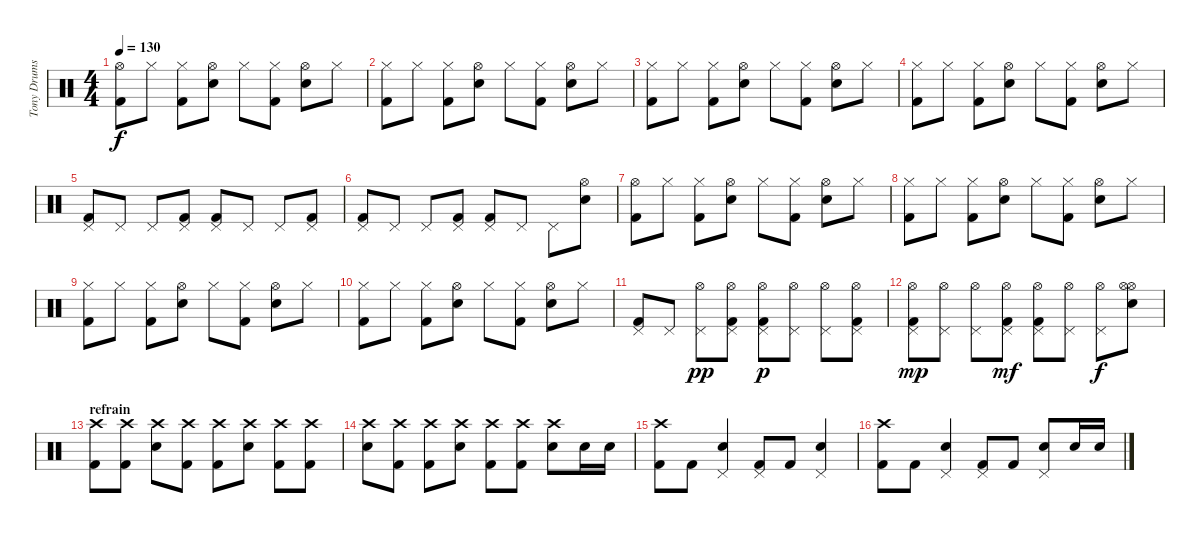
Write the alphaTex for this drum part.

\track ("Tony Drums" "Tony Drums") {instrument percussion}
\staff {score}
\articulation defaults
\ts (4 4)
\tempo 130
\clef neutral
\ks c
("Hi-Hat (open)" "Kick (hit) 2").8{dy f} "Hi-Hat (closed)".8 ("Hi-Hat (closed)" "Kick (hit) 2").8 ("Hi-Hat (open)" "Snare (hit) 2").8 "Hi-Hat (closed)".8 ("Hi-Hat (closed)" "Kick (hit) 2").8 ("Hi-Hat (open)" "Snare (hit) 2").8 "Hi-Hat (closed)".8 |
("Hi-Hat (closed)" "Kick (hit) 2").8 "Hi-Hat (closed)".8 ("Hi-Hat (closed)" "Kick (hit) 2").8 ("Hi-Hat (open)" "Snare (hit) 2").8 "Hi-Hat (closed)".8 ("Hi-Hat (closed)" "Kick (hit) 2").8 ("Hi-Hat (open)" "Snare (hit) 2").8 "Hi-Hat (closed)".8 |
("Hi-Hat (closed)" "Kick (hit) 2").8 "Hi-Hat (closed)".8 ("Hi-Hat (closed)" "Kick (hit) 2").8 ("Hi-Hat (open)" "Snare (hit) 2").8 "Hi-Hat (closed)".8 ("Hi-Hat (closed)" "Kick (hit) 2").8 ("Hi-Hat (open)" "Snare (hit) 2").8 "Hi-Hat (closed)".8 |
("Hi-Hat (closed)" "Kick (hit) 2").8 "Hi-Hat (closed)".8 ("Hi-Hat (closed)" "Kick (hit) 2").8 ("Hi-Hat (open)" "Snare (hit) 2").8 "Hi-Hat (closed)".8 ("Hi-Hat (closed)" "Kick (hit) 2").8 ("Hi-Hat (open)" "Snare (hit) 2").8 "Hi-Hat (closed)".8 |
("Pedal Hi-Hat (hit)" "Kick (hit) 2").8 "Pedal Hi-Hat (hit)".8 "Pedal Hi-Hat (hit)".8 ("Pedal Hi-Hat (hit)" "Kick (hit) 2").8 ("Pedal Hi-Hat (hit)" "Kick (hit) 2").8 "Pedal Hi-Hat (hit)".8 "Pedal Hi-Hat (hit)".8 ("Pedal Hi-Hat (hit)" "Kick (hit) 2").8 |
("Pedal Hi-Hat (hit)" "Kick (hit) 2").8 "Pedal Hi-Hat (hit)".8 "Pedal Hi-Hat (hit)".8 ("Pedal Hi-Hat (hit)" "Kick (hit) 2").8 ("Pedal Hi-Hat (hit)" "Kick (hit) 2").8 "Pedal Hi-Hat (hit)".8 "Pedal Hi-Hat (hit)".8 ("Hi-Hat (open)" "Snare (hit) 2").8 |
("Hi-Hat (open)" "Kick (hit) 2").8 "Hi-Hat (closed)".8 ("Hi-Hat (closed)" "Kick (hit) 2").8 ("Hi-Hat (open)" "Snare (hit) 2").8 "Hi-Hat (closed)".8 ("Hi-Hat (closed)" "Kick (hit) 2").8 ("Hi-Hat (open)" "Snare (hit) 2").8 "Hi-Hat (closed)".8 |
("Hi-Hat (closed)" "Kick (hit) 2").8 "Hi-Hat (closed)".8 ("Hi-Hat (closed)" "Kick (hit) 2").8 ("Hi-Hat (open)" "Snare (hit) 2").8 "Hi-Hat (closed)".8 ("Hi-Hat (closed)" "Kick (hit) 2").8 ("Hi-Hat (open)" "Snare (hit) 2").8 "Hi-Hat (closed)".8 |
("Hi-Hat (closed)" "Kick (hit) 2").8 "Hi-Hat (closed)".8 ("Hi-Hat (closed)" "Kick (hit) 2").8 ("Hi-Hat (open)" "Snare (hit) 2").8 "Hi-Hat (closed)".8 ("Hi-Hat (closed)" "Kick (hit) 2").8 ("Hi-Hat (open)" "Snare (hit) 2").8 "Hi-Hat (closed)".8 |
("Hi-Hat (closed)" "Kick (hit) 2").8 "Hi-Hat (closed)".8 ("Hi-Hat (closed)" "Kick (hit) 2").8 ("Hi-Hat (open)" "Snare (hit) 2").8 "Hi-Hat (closed)".8 ("Hi-Hat (closed)" "Kick (hit) 2").8 ("Hi-Hat (open)" "Snare (hit) 2").8 "Hi-Hat (closed)".8 |
("Pedal Hi-Hat (hit)" "Kick (hit) 2").8 "Pedal Hi-Hat (hit)".8 ("Hi-Hat (open)" "Pedal Hi-Hat (hit)").8{dy pp} ("Hi-Hat (open)" "Pedal Hi-Hat (hit)" "Kick (hit) 2").8 ("Hi-Hat (open)" "Pedal Hi-Hat (hit)" "Kick (hit) 2").8{dy p} ("Hi-Hat (open)" "Pedal Hi-Hat (hit)").8 ("Hi-Hat (open)" "Pedal Hi-Hat (hit)").8 ("Hi-Hat (open)" "Pedal Hi-Hat (hit)" "Kick (hit) 2").8 |
("Hi-Hat (open)" "Pedal Hi-Hat (hit)" "Kick (hit) 2").8{dy mp} ("Hi-Hat (open)" "Pedal Hi-Hat (hit)").8 ("Hi-Hat (open)" "Pedal Hi-Hat (hit)").8 ("Hi-Hat (open)" "Pedal Hi-Hat (hit)" "Kick (hit) 2").8{dy mf} ("Hi-Hat (open)" "Pedal Hi-Hat (hit)" "Kick (hit) 2").8 ("Hi-Hat (open)" "Pedal Hi-Hat (hit)").8 ("Hi-Hat (open)" "Pedal Hi-Hat (hit)").8{dy f} ("Hi-Hat (open)" "Hi-Hat (open)" "Snare (hit) 2").8 |
\section ("" "refrain")
("Crash high (hit)" "Kick (hit) 2").8 ("Crash high (hit)" "Kick (hit) 2").8 ("Crash high (hit)" "Snare (hit) 2").8 ("Crash high (hit)" "Kick (hit) 2").8 ("Crash high (hit)" "Kick (hit) 2").8 ("Crash high (hit)" "Snare (hit) 2").8 ("Crash high (hit)" "Kick (hit) 2").8 ("Crash high (hit)" "Kick (hit) 2").8 |
("Crash high (hit)" "Snare (hit) 2").8 ("Crash high (hit)" "Kick (hit) 2").8 ("Crash high (hit)" "Kick (hit) 2").8 ("Crash high (hit)" "Snare (hit) 2").8 ("Crash high (hit)" "Kick (hit) 2").8 ("Crash high (hit)" "Kick (hit) 2").8 ("Crash high (hit)" "Snare (hit) 2").8 "Snare (hit) 2".16 "Snare (hit) 2".16 |
("Crash high (hit)" "Kick (hit) 2").8 "Kick (hit) 2".8 ("Pedal Hi-Hat (hit)" "Snare (hit) 2").4 ("Pedal Hi-Hat (hit)" "Kick (hit) 2").8 "Kick (hit) 2".8 ("Pedal Hi-Hat (hit)" "Snare (hit) 2").4 |
("Crash high (hit)" "Kick (hit) 2").8 "Kick (hit) 2".8 ("Pedal Hi-Hat (hit)" "Snare (hit) 2").4 ("Pedal Hi-Hat (hit)" "Kick (hit) 2").8 "Kick (hit) 2".8 ("Pedal Hi-Hat (hit)" "Snare (hit) 2").8 "Snare (hit) 2".16 "Snare (hit) 2".16
